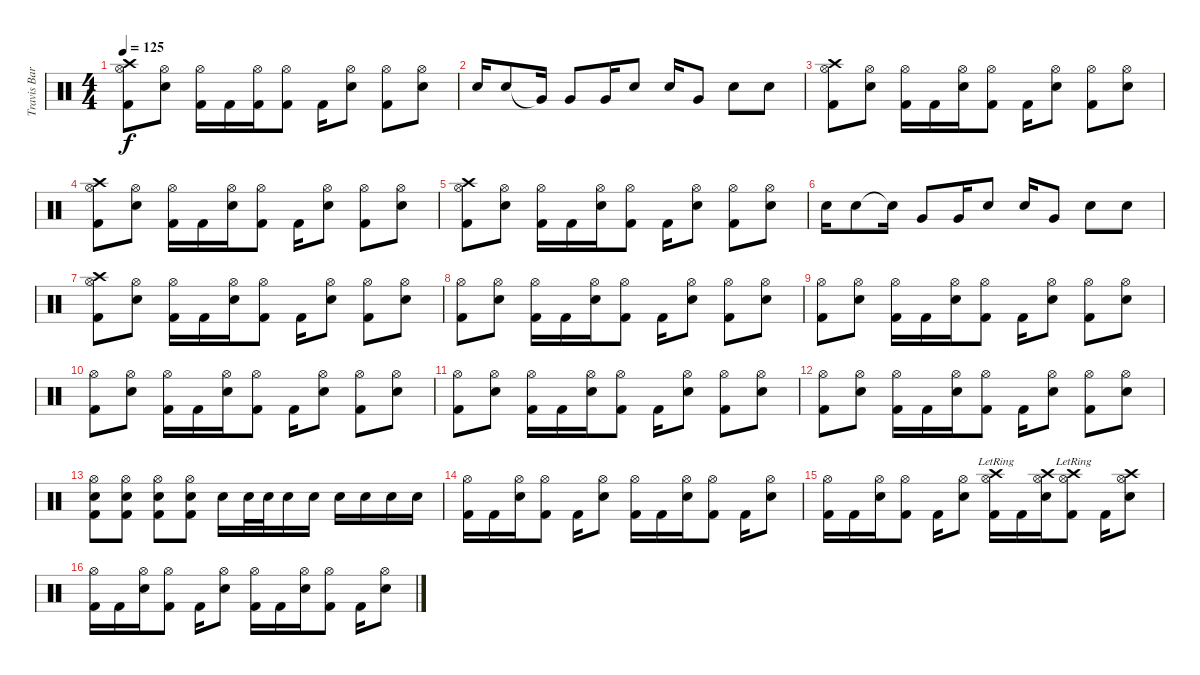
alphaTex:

\track ("Travis Barker - Drums" "Travis Bar") {instrument percussion}
\staff {score}
\articulation defaults
\ts (4 4)
\tempo 125
\clef neutral
\ks c
("Crash high (hit)" "Hi-Hat (open)" "Kick (hit) 2").8{dy f} ("Hi-Hat (open)" "Electric Snare (hit)").8 ("Hi-Hat (open)" "Kick (hit) 2").16 "Kick (hit) 2".16 ("Hi-Hat (open)" "Kick (hit) 2").16 ("Hi-Hat (open)" "Kick (hit) 2").8 "Kick (hit) 2".16 ("Hi-Hat (open)" "Electric Snare (hit)").8 ("Hi-Hat (open)" "Kick (hit) 2").8 ("Hi-Hat (open)" "Electric Snare (hit)").8 |
"Electric Snare (hit)".16 "Electric Snare (hit)".8 "Very Low Tom (hit)"{t}.16 "Very Low Tom (hit)".8 "Very Low Tom (hit)".16 "Electric Snare (hit)".8 "Electric Snare (hit)".16 "Very Low Tom (hit)".8 "Electric Snare (hit)".8 "Electric Snare (hit)".8 |
("Crash high (hit)" "Hi-Hat (open)" "Kick (hit) 2").8 ("Hi-Hat (open)" "Electric Snare (hit)").8 ("Hi-Hat (open)" "Kick (hit) 2").16 "Kick (hit) 2".16 ("Hi-Hat (open)" "Electric Snare (hit)").16 ("Hi-Hat (open)" "Kick (hit) 2").8 "Kick (hit) 2".16 ("Hi-Hat (open)" "Electric Snare (hit)").8 ("Hi-Hat (open)" "Kick (hit) 2").8 ("Hi-Hat (open)" "Electric Snare (hit)").8 |
("Crash high (hit)" "Hi-Hat (open)" "Kick (hit) 2").8 ("Hi-Hat (open)" "Electric Snare (hit)").8 ("Hi-Hat (open)" "Kick (hit) 2").16 "Kick (hit) 2".16 ("Hi-Hat (open)" "Electric Snare (hit)").16 ("Hi-Hat (open)" "Kick (hit) 2").8 "Kick (hit) 2".16 ("Hi-Hat (open)" "Electric Snare (hit)").8 ("Hi-Hat (open)" "Kick (hit) 2").8 ("Hi-Hat (open)" "Electric Snare (hit)").8 |
("Crash high (hit)" "Hi-Hat (open)" "Kick (hit) 2").8 ("Hi-Hat (open)" "Electric Snare (hit)").8 ("Hi-Hat (open)" "Kick (hit) 2").16 "Kick (hit) 2".16 ("Hi-Hat (open)" "Electric Snare (hit)").16 ("Hi-Hat (open)" "Kick (hit) 2").8 "Kick (hit) 2".16 ("Hi-Hat (open)" "Electric Snare (hit)").8 ("Hi-Hat (open)" "Kick (hit) 2").8 ("Hi-Hat (open)" "Electric Snare (hit)").8 |
"Electric Snare (hit)".16 "Electric Snare (hit)".8 "Snare (hit)"{t}.16 "Very Low Tom (hit)".8 "Very Low Tom (hit)".16 "Electric Snare (hit)".8 "Electric Snare (hit)".16 "Very Low Tom (hit)".8 "Electric Snare (hit)".8 "Electric Snare (hit)".8 |
("Crash high (hit)" "Hi-Hat (open)" "Kick (hit) 2").8 ("Hi-Hat (open)" "Electric Snare (hit)").8 ("Hi-Hat (open)" "Kick (hit) 2").16 "Kick (hit) 2".16 ("Hi-Hat (open)" "Electric Snare (hit)").16 ("Hi-Hat (open)" "Kick (hit) 2").8 "Kick (hit) 2".16 ("Hi-Hat (open)" "Electric Snare (hit)").8 ("Hi-Hat (open)" "Kick (hit) 2").8 ("Hi-Hat (open)" "Electric Snare (hit)").8 |
("Hi-Hat (open)" "Kick (hit) 2").8 ("Hi-Hat (open)" "Electric Snare (hit)").8 ("Hi-Hat (open)" "Kick (hit) 2").16 "Kick (hit) 2".16 ("Hi-Hat (open)" "Electric Snare (hit)").16 ("Hi-Hat (open)" "Kick (hit) 2").8 "Kick (hit) 2".16 ("Hi-Hat (open)" "Electric Snare (hit)").8 ("Hi-Hat (open)" "Kick (hit) 2").8 ("Hi-Hat (open)" "Electric Snare (hit)").8 |
("Hi-Hat (open)" "Kick (hit) 2").8 ("Hi-Hat (open)" "Electric Snare (hit)").8 ("Hi-Hat (open)" "Kick (hit) 2").16 "Kick (hit) 2".16 ("Hi-Hat (open)" "Electric Snare (hit)").16 ("Hi-Hat (open)" "Kick (hit) 2").8 "Kick (hit) 2".16 ("Hi-Hat (open)" "Electric Snare (hit)").8 ("Hi-Hat (open)" "Kick (hit) 2").8 ("Hi-Hat (open)" "Electric Snare (hit)").8 |
("Hi-Hat (open)" "Kick (hit) 2").8 ("Hi-Hat (open)" "Electric Snare (hit)").8 ("Hi-Hat (open)" "Kick (hit) 2").16 "Kick (hit) 2".16 ("Hi-Hat (open)" "Electric Snare (hit)").16 ("Hi-Hat (open)" "Kick (hit) 2").8 "Kick (hit) 2".16 ("Hi-Hat (open)" "Electric Snare (hit)").8 ("Hi-Hat (open)" "Kick (hit) 2").8 ("Hi-Hat (open)" "Electric Snare (hit)").8 |
("Hi-Hat (open)" "Kick (hit) 2").8 ("Hi-Hat (open)" "Electric Snare (hit)").8 ("Hi-Hat (open)" "Kick (hit) 2").16 "Kick (hit) 2".16 ("Hi-Hat (open)" "Electric Snare (hit)").16 ("Hi-Hat (open)" "Kick (hit) 2").8 "Kick (hit) 2".16 ("Hi-Hat (open)" "Electric Snare (hit)").8 ("Hi-Hat (open)" "Kick (hit) 2").8 ("Hi-Hat (open)" "Electric Snare (hit)").8 |
("Hi-Hat (open)" "Kick (hit) 2").8 ("Hi-Hat (open)" "Electric Snare (hit)").8 ("Hi-Hat (open)" "Kick (hit) 2").16 "Kick (hit) 2".16 ("Hi-Hat (open)" "Electric Snare (hit)").16 ("Hi-Hat (open)" "Kick (hit) 2").8 "Kick (hit) 2".16 ("Hi-Hat (open)" "Electric Snare (hit)").8 ("Hi-Hat (open)" "Kick (hit) 2").8 ("Hi-Hat (open)" "Electric Snare (hit)").8 |
("Hi-Hat (open)" "Electric Snare (hit)" "Kick (hit) 2").8 ("Hi-Hat (open)" "Electric Snare (hit)" "Kick (hit) 2").8 ("Hi-Hat (open)" "Electric Snare (hit)" "Kick (hit) 2").8 ("Hi-Hat (open)" "Electric Snare (hit)" "Kick (hit) 2").8 "Electric Snare (hit)".16 "Electric Snare (hit)".32 "Electric Snare (hit)".32 "Electric Snare (hit)".16 "Electric Snare (hit)".16 "Electric Snare (hit)".16 "Electric Snare (hit)".16 "Electric Snare (hit)".16 "Electric Snare (hit)".16 |
("Hi-Hat (open)" "Kick (hit) 2").16 "Kick (hit) 2".16 ("Hi-Hat (open)" "Electric Snare (hit)").16 ("Hi-Hat (open)" "Kick (hit) 2").8 "Kick (hit) 2".16 ("Hi-Hat (open)" "Electric Snare (hit)").8 ("Hi-Hat (open)" "Kick (hit) 2").16 "Kick (hit) 2".16 ("Hi-Hat (open)" "Electric Snare (hit)").16 ("Hi-Hat (open)" "Kick (hit) 2").8 "Kick (hit) 2".16 ("Hi-Hat (open)" "Electric Snare (hit)").8 |
("Hi-Hat (open)" "Kick (hit) 2").16 "Kick (hit) 2".16 ("Hi-Hat (open)" "Electric Snare (hit)").16 ("Hi-Hat (open)" "Kick (hit) 2").8 "Kick (hit) 2".16 ("Hi-Hat (open)" "Electric Snare (hit)").8 ("Crash high (hit)" "Hi-Hat (open)" "Kick (hit) 2"{lr}).16 "Kick (hit) 2".16 ("Crash high (hit)" "Hi-Hat (open)" "Electric Snare (hit)").16 ("Crash high (hit)" "Hi-Hat (open)" "Kick (hit) 2"{lr}).8 "Kick (hit) 2".16 ("Crash high (hit)" "Hi-Hat (open)" "Electric Snare (hit)").8 |
("Hi-Hat (open)" "Kick (hit) 2").16 "Kick (hit) 2".16 ("Hi-Hat (open)" "Electric Snare (hit)").16 ("Hi-Hat (open)" "Kick (hit) 2").8 "Kick (hit) 2".16 ("Hi-Hat (open)" "Electric Snare (hit)").8 ("Hi-Hat (open)" "Kick (hit) 2").16 "Kick (hit) 2".16 ("Hi-Hat (open)" "Electric Snare (hit)").16 ("Hi-Hat (open)" "Kick (hit) 2").8 "Kick (hit) 2".16 ("Hi-Hat (open)" "Electric Snare (hit)").8
